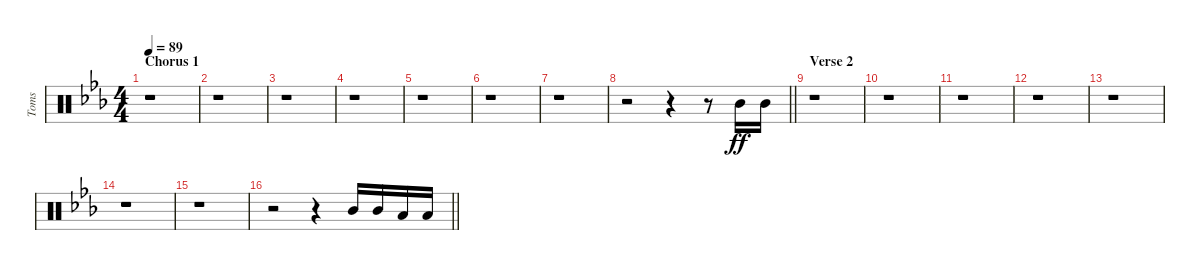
\track ("Toms" "Toms") {instrument percussion}
\staff {score}
\articulation defaults
\ts (4 4)
\section ("" "Chorus 1")
\tempo 89
\clef neutral
\ks eb
r.1{dy ff} |
r.1 |
r.1 |
r.1 |
r.1 |
r.1 |
r.1 |
\barLineRight lightlight
r.2 r.4 r.8 "Mid Tom (hit)".16 "Mid Tom (hit)".16 |
\section ("" "Verse 2")
r.1 |
r.1 |
r.1 |
r.1 |
r.1 |
r.1 |
r.1 |
\barLineRight lightlight
r.2 r.4 "Mid Tom (hit)".16 "Mid Tom (hit)".16 "Low Tom (hit)".16{balance 5} "Low Tom (hit)".16
